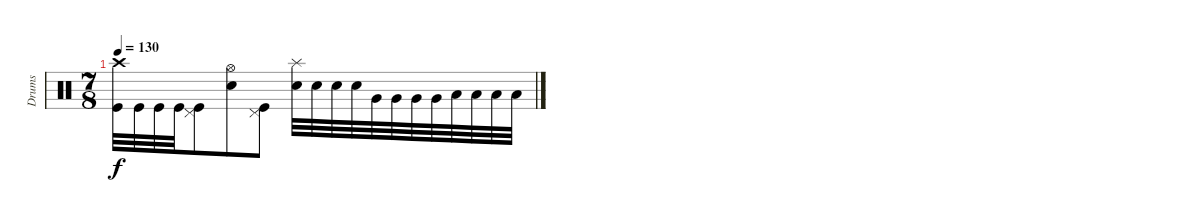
\track ("Drums" "Drums") {instrument percussion}
\staff {score}
\articulation defaults
\ts (7 8)
\tempo 130
\clef neutral
\ks c
("Crash high (hit)" "Kick (hit)").32{dy f} "Kick (hit)".32 "Kick (hit)".32 "Kick (hit)".32 ("Pedal Hi-Hat (hit)" "Kick (hit)").8 ("Hi-Hat (open)" "Snare (hit) 2").8 ("Pedal Hi-Hat (hit)" "Kick (hit)").8 ("Splash (hit)" "Snare (hit) 2").32 "Snare (hit) 2".32 "Snare (hit) 2".32 "Snare (hit) 2".32 "Very Low Tom (hit)".32 "Very Low Tom (hit)".32 "Very Low Tom (hit)".32 "Very Low Tom (hit)".32 "Low Floor Tom (hit)".32 "Low Floor Tom (hit)".32 "Low Floor Tom (hit)".32 "Low Floor Tom (hit)".32
